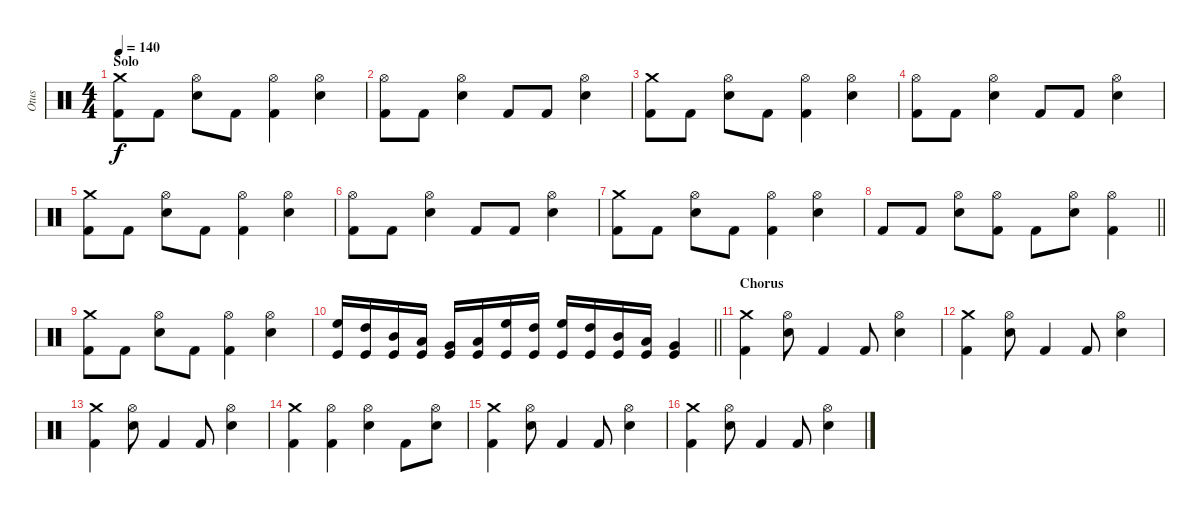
\track ("Otus" "Otus") {instrument percussion}
\staff {score}
\articulation defaults
\ts (4 4)
\section ("" "Solo")
\tempo 140
\clef neutral
\ks c
("Crash medium (hit)" "Kick (hit) 2").8{dy f} "Kick (hit) 2".8 ("Hi-Hat (open)" "Electric Snare (hit)").8 "Kick (hit) 2".8 ("Hi-Hat (open)" "Kick (hit) 2").4 ("Hi-Hat (open)" "Electric Snare (hit)").4 |
("Hi-Hat (open)" "Kick (hit) 2").8 "Kick (hit) 2".8 ("Hi-Hat (open)" "Electric Snare (hit)").4 "Kick (hit) 2".8 "Kick (hit) 2".8 ("Hi-Hat (open)" "Electric Snare (hit)").4 |
("Crash medium (hit)" "Kick (hit) 2").8 "Kick (hit) 2".8 ("Hi-Hat (open)" "Electric Snare (hit)").8 "Kick (hit) 2".8 ("Hi-Hat (open)" "Kick (hit) 2").4 ("Hi-Hat (open)" "Electric Snare (hit)").4 |
("Hi-Hat (open)" "Kick (hit) 2").8 "Kick (hit) 2".8 ("Hi-Hat (open)" "Electric Snare (hit)").4 "Kick (hit) 2".8 "Kick (hit) 2".8 ("Hi-Hat (open)" "Electric Snare (hit)").4 |
("Crash medium (hit)" "Kick (hit) 2").8 "Kick (hit) 2".8 ("Hi-Hat (open)" "Electric Snare (hit)").8 "Kick (hit) 2".8 ("Hi-Hat (open)" "Kick (hit) 2").4 ("Hi-Hat (open)" "Electric Snare (hit)").4 |
("Hi-Hat (open)" "Kick (hit) 2").8 "Kick (hit) 2".8 ("Hi-Hat (open)" "Electric Snare (hit)").4 "Kick (hit) 2".8 "Kick (hit) 2".8 ("Hi-Hat (open)" "Electric Snare (hit)").4 |
("Crash medium (hit)" "Kick (hit) 2").8 "Kick (hit) 2".8 ("Hi-Hat (open)" "Electric Snare (hit)").8 "Kick (hit) 2".8 ("Hi-Hat (open)" "Kick (hit) 2").4 ("Hi-Hat (open)" "Electric Snare (hit)").4 |
\barLineRight lightlight "Kick (hit) 2".8 "Kick (hit) 2".8
("Hi-Hat (open)" "Electric Snare (hit)").8 ("Hi-Hat (open)" "Kick (hit) 2").8 "Kick (hit) 2".8 ("Hi-Hat (open)" "Electric Snare (hit)").8 ("Hi-Hat (open)" "Kick (hit) 2").4 |
("Crash medium (hit)" "Kick (hit) 2").8 "Kick (hit) 2".8 ("Hi-Hat (open)" "Electric Snare (hit)").8 "Kick (hit) 2".8 ("Hi-Hat (open)" "Kick (hit) 2").4 ("Hi-Hat (open)" "Electric Snare (hit)").4 |
\barLineRight lightlight
("High Floor Tom (hit)" "Kick (hit)").16 ("High Tom (hit)" "Kick (hit)").16 ("Mid Tom (hit)" "Kick (hit)").16 ("Low Tom (hit)" "Kick (hit)").16 ("Very Low Tom (hit)" "Kick (hit)").16 ("Low Floor Tom (hit)" "Kick (hit)").16 ("High Floor Tom (hit)" "Kick (hit)").16 ("High Tom (hit)" "Kick (hit)").16 ("High Floor Tom (hit)" "Kick (hit)").16 ("High Tom (hit)" "Kick (hit)").16 ("Mid Tom (hit)" "Kick (hit)").16 ("Low Tom (hit)" "Kick (hit)").16 ("Very Low Tom (hit)" "Kick (hit)").4 |
\section ("" "Chorus")
("Crash medium (hit)" "Kick (hit) 2").4 ("Hi-Hat (open)" "Electric Snare (hit)").8 "Kick (hit) 2".4 "Kick (hit) 2".8 ("Hi-Hat (open)" "Electric Snare (hit)").4 |
("Crash medium (hit)" "Kick (hit) 2").4 ("Hi-Hat (open)" "Electric Snare (hit)").8 "Kick (hit) 2".4 "Kick (hit) 2".8 ("Hi-Hat (open)" "Electric Snare (hit)").4 |
("Crash medium (hit)" "Kick (hit) 2").4 ("Hi-Hat (open)" "Electric Snare (hit)").8 "Kick (hit) 2".4 "Kick (hit) 2".8 ("Hi-Hat (open)" "Electric Snare (hit)").4 |
("Crash medium (hit)" "Kick (hit) 2").4 ("Hi-Hat (open)" "Kick (hit) 2").4 ("Hi-Hat (open)" "Electric Snare (hit)").4 "Kick (hit) 2".8 ("Hi-Hat (open)" "Electric Snare (hit)").8 |
("Crash medium (hit)" "Kick (hit) 2").4 ("Hi-Hat (open)" "Electric Snare (hit)").8 "Kick (hit) 2".4 "Kick (hit) 2".8 ("Hi-Hat (open)" "Electric Snare (hit)").4 |
("Crash medium (hit)" "Kick (hit) 2").4 ("Hi-Hat (open)" "Electric Snare (hit)").8 "Kick (hit) 2".4 "Kick (hit) 2".8 ("Hi-Hat (open)" "Electric Snare (hit)").4
